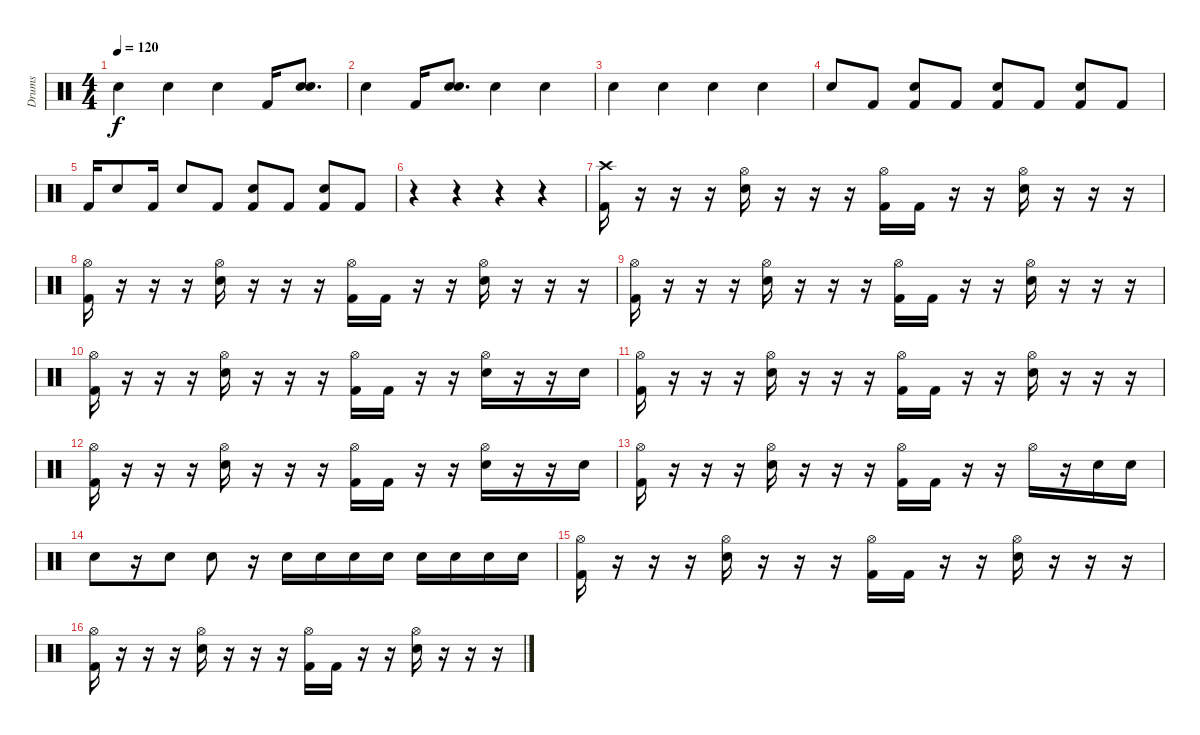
\track ("Drums" "Drums") {instrument percussion}
\staff {score}
\articulation defaults
\ts (4 4)
\tempo 120
\clef neutral
\ks c "Hand Clap (hit)".4{dy f} "Hand Clap (hit)".4 "Hand Clap (hit)".4 "Kick (hit) 2".16
("Hand Clap (hit)" "Electric Snare (hit)").8{d} |
"Hand Clap (hit)".4 "Kick (hit) 2".16 ("Hand Clap (hit)" "Electric Snare (hit)").8{d} "Hand Clap (hit)".4 "Hand Clap (hit)".4 |
"Hand Clap (hit)".4 "Hand Clap (hit)".4 "Hand Clap (hit)".4 "Hand Clap (hit)".4 |
"Hand Clap (hit)".8 "Kick (hit) 2".8 ("Hand Clap (hit)" "Kick (hit) 2").8 "Kick (hit) 2".8 ("Hand Clap (hit)" "Kick (hit) 2").8 "Kick (hit) 2".8 ("Hand Clap (hit)" "Kick (hit) 2").8 "Kick (hit) 2".8 |
"Kick (hit) 2".16 "Hand Clap (hit)".8 "Kick (hit) 2".16 "Hand Clap (hit)".8 "Kick (hit) 2".8 ("Hand Clap (hit)" "Kick (hit) 2").8 "Kick (hit) 2".8 ("Hand Clap (hit)" "Kick (hit) 2").8 "Kick (hit) 2".8 |
r.4 r.4 r.4 r.4 |
("Crash high (hit)" "Kick (hit) 2").16 r.16 r.16 r.16 ("Hi-Hat (open)" "Electric Snare (hit)").16 r.16 r.16 r.16 ("Hi-Hat (open)" "Kick (hit) 2").16 "Kick (hit) 2".16 r.16 r.16 ("Hi-Hat (open)" "Electric Snare (hit)").16 r.16 r.16 r.16 |
("Hi-Hat (open)" "Kick (hit) 2").16 r.16 r.16 r.16 ("Hi-Hat (open)" "Electric Snare (hit)").16 r.16 r.16 r.16 ("Hi-Hat (open)" "Kick (hit) 2").16 "Kick (hit) 2".16 r.16 r.16 ("Hi-Hat (open)" "Electric Snare (hit)").16 r.16 r.16 r.16 |
("Hi-Hat (open)" "Kick (hit) 2").16 r.16 r.16 r.16 ("Hi-Hat (open)" "Electric Snare (hit)").16 r.16 r.16 r.16 ("Hi-Hat (open)" "Kick (hit) 2").16 "Kick (hit) 2".16 r.16 r.16 ("Hi-Hat (open)" "Electric Snare (hit)").16 r.16 r.16 r.16 |
("Hi-Hat (open)" "Kick (hit) 2").16 r.16 r.16 r.16 ("Hi-Hat (open)" "Electric Snare (hit)").16 r.16 r.16 r.16 ("Hi-Hat (open)" "Kick (hit) 2").16 "Kick (hit) 2".16 r.16 r.16 ("Hi-Hat (open)" "Electric Snare (hit)").16 r.16 r.16 "Electric Snare (hit)".16 |
("Hi-Hat (open)" "Kick (hit) 2").16 r.16 r.16 r.16 ("Hi-Hat (open)" "Electric Snare (hit)").16 r.16 r.16 r.16 ("Hi-Hat (open)" "Kick (hit) 2").16 "Kick (hit) 2".16 r.16 r.16 ("Hi-Hat (open)" "Electric Snare (hit)").16 r.16 r.16 r.16 |
("Hi-Hat (open)" "Kick (hit) 2").16 r.16 r.16 r.16 ("Hi-Hat (open)" "Electric Snare (hit)").16 r.16 r.16 r.16 ("Hi-Hat (open)" "Kick (hit) 2").16 "Kick (hit) 2".16 r.16 r.16 ("Hi-Hat (open)" "Electric Snare (hit)").16 r.16 r.16 "Electric Snare (hit)".16 |
("Hi-Hat (open)" "Kick (hit) 2").16 r.16 r.16 r.16 ("Hi-Hat (open)" "Electric Snare (hit)").16 r.16 r.16 r.16 ("Hi-Hat (open)" "Kick (hit) 2").16 "Kick (hit) 2".16 r.16 r.16 "Hi-Hat (open)".16 r.16 "Electric Snare (hit)".16 "Electric Snare (hit)".16 |
"Electric Snare (hit)".8 r.16 "Electric Snare (hit)".8 "Electric Snare (hit)".8 r.16 "Electric Snare (hit)".16 "Electric Snare (hit)".16 "Electric Snare (hit)".16 "Electric Snare (hit)".16 "Electric Snare (hit)".16 "Electric Snare (hit)".16 "Electric Snare (hit)".16 "Electric Snare (hit)".16 |
("Hi-Hat (open)" "Kick (hit) 2").16 r.16 r.16 r.16 ("Hi-Hat (open)" "Electric Snare (hit)").16 r.16 r.16 r.16 ("Hi-Hat (open)" "Kick (hit) 2").16 "Kick (hit) 2".16 r.16 r.16 ("Hi-Hat (open)" "Electric Snare (hit)").16 r.16 r.16 r.16 |
("Hi-Hat (open)" "Kick (hit) 2").16 r.16 r.16 r.16 ("Hi-Hat (open)" "Electric Snare (hit)").16 r.16 r.16 r.16 ("Hi-Hat (open)" "Kick (hit) 2").16 "Kick (hit) 2".16 r.16 r.16 ("Hi-Hat (open)" "Electric Snare (hit)").16 r.16 r.16 r.16
